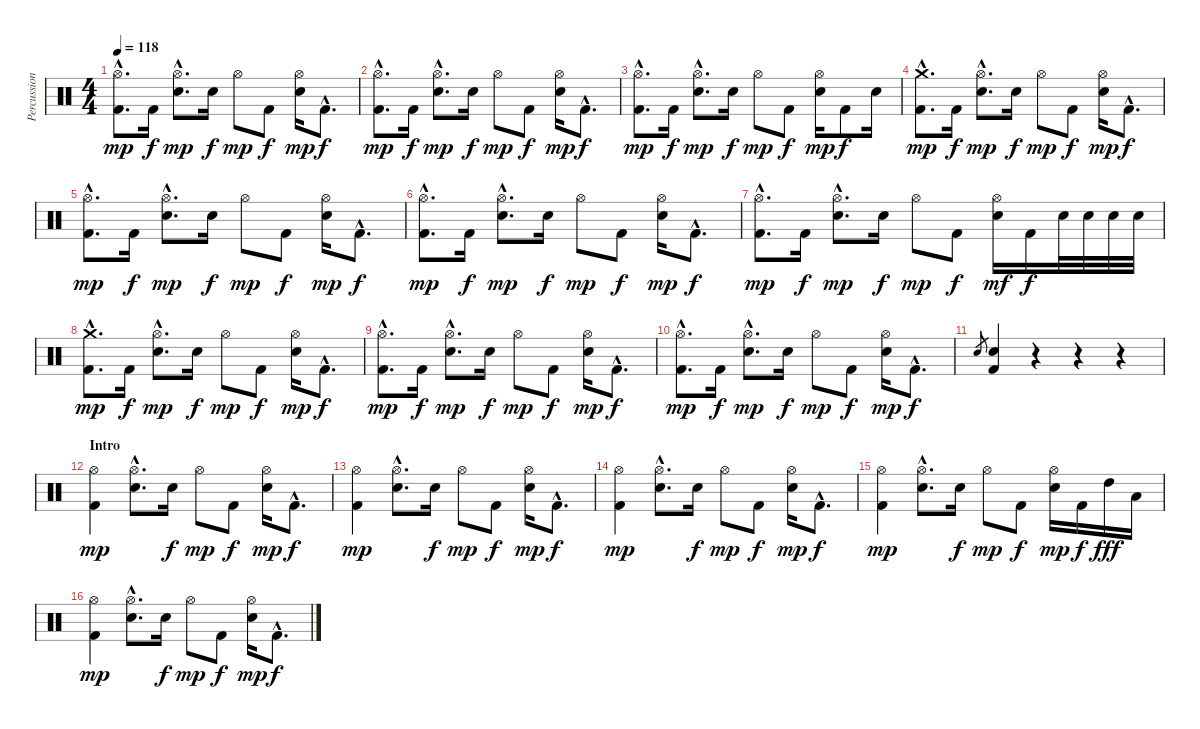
\track ("Percussions" "Percussion") {instrument percussion}
\staff {score}
\articulation defaults
\ts (4 4)
\tempo 118
\clef neutral
\ks c
("Hi-Hat (open)"{hac} "Kick (hit) 2"{hac}).8{d dy mp} "Kick (hit) 2".16{dy f} ("Hi-Hat (open)"{hac} "Snare (hit) 2"{hac}).8{d dy mp} "Electric Snare (hit)".16{dy f} "Hi-Hat (open)".8{dy mp} "Kick (hit) 2".8{dy f} ("Hi-Hat (open)" "Snare (hit) 2").16{dy mp} "Kick (hit) 2"{hac}.8{d dy f} |
("Hi-Hat (open)"{hac} "Kick (hit) 2"{hac}).8{d dy mp} "Kick (hit) 2".16{dy f} ("Hi-Hat (open)"{hac} "Snare (hit) 2"{hac}).8{d dy mp} "Electric Snare (hit)".16{dy f} "Hi-Hat (open)".8{dy mp} "Kick (hit) 2".8{dy f} ("Hi-Hat (open)" "Snare (hit) 2").16{dy mp} "Kick (hit) 2"{hac}.8{d dy f} |
("Hi-Hat (open)"{hac} "Kick (hit) 2"{hac}).8{d dy mp} "Kick (hit) 2".16{dy f} ("Hi-Hat (open)"{hac} "Snare (hit) 2"{hac}).8{d dy mp} "Electric Snare (hit)".16{dy f} "Hi-Hat (open)".8{dy mp} "Kick (hit) 2".8{dy f} ("Hi-Hat (open)" "Snare (hit) 2").16{dy mp} "Kick (hit) 2".8{dy f} "Snare (hit) 2".16 |
("Crash medium (hit)"{hac} "Kick (hit) 2"{hac}).8{d dy mp} "Kick (hit) 2".16{dy f} ("Hi-Hat (open)"{hac} "Snare (hit) 2"{hac}).8{d dy mp} "Electric Snare (hit)".16{dy f} "Hi-Hat (open)".8{dy mp} "Kick (hit) 2".8{dy f} ("Hi-Hat (open)" "Snare (hit) 2").16{dy mp} "Kick (hit) 2"{hac}.8{d dy f} |
("Hi-Hat (open)"{hac} "Kick (hit) 2"{hac}).8{d dy mp} "Kick (hit) 2".16{dy f} ("Hi-Hat (open)"{hac} "Snare (hit) 2"{hac}).8{d dy mp} "Electric Snare (hit)".16{dy f} "Hi-Hat (open)".8{dy mp} "Kick (hit) 2".8{dy f} ("Hi-Hat (open)" "Snare (hit) 2").16{dy mp} "Kick (hit) 2"{hac}.8{d dy f} |
("Hi-Hat (open)"{hac} "Kick (hit) 2"{hac}).8{d dy mp} "Kick (hit) 2".16{dy f} ("Hi-Hat (open)"{hac} "Snare (hit) 2"{hac}).8{d dy mp} "Electric Snare (hit)".16{dy f} "Hi-Hat (open)".8{dy mp} "Kick (hit) 2".8{dy f} ("Hi-Hat (open)" "Snare (hit) 2").16{dy mp} "Kick (hit) 2"{hac}.8{d dy f} |
("Hi-Hat (open)"{hac} "Kick (hit) 2"{hac}).8{d dy mp} "Kick (hit) 2".16{dy f} ("Hi-Hat (open)"{hac} "Snare (hit) 2"{hac}).8{d dy mp} "Electric Snare (hit)".16{dy f} "Hi-Hat (open)".8{dy mp} "Kick (hit) 2".8{dy f} ("Hi-Hat (open)" "Snare (hit) 2").16{dy mf} "Kick (hit) 2".16{dy f} "Snare (hit) 2".32 "Snare (hit) 2".32 "Snare (hit) 2".32 "Snare (hit) 2".32 |
("Crash medium (hit)"{hac} "Kick (hit) 2"{hac}).8{d dy mp} "Kick (hit) 2".16{dy f} ("Hi-Hat (open)"{hac} "Snare (hit) 2"{hac}).8{d dy mp} "Electric Snare (hit)".16{dy f} "Hi-Hat (open)".8{dy mp} "Kick (hit) 2".8{dy f} ("Hi-Hat (open)" "Snare (hit) 2").16{dy mp} "Kick (hit) 2"{hac}.8{d dy f} |
("Hi-Hat (open)"{hac} "Kick (hit) 2"{hac}).8{d dy mp} "Kick (hit) 2".16{dy f} ("Hi-Hat (open)"{hac} "Snare (hit) 2"{hac}).8{d dy mp} "Electric Snare (hit)".16{dy f} "Hi-Hat (open)".8{dy mp} "Kick (hit) 2".8{dy f} ("Hi-Hat (open)" "Snare (hit) 2").16{dy mp} "Kick (hit) 2"{hac}.8{d dy f} |
("Hi-Hat (open)"{hac} "Kick (hit) 2"{hac}).8{d dy mp} "Kick (hit) 2".16{dy f} ("Hi-Hat (open)"{hac} "Snare (hit) 2"{hac}).8{d dy mp} "Electric Snare (hit)".16{dy f} "Hi-Hat (open)".8{dy mp} "Kick (hit) 2".8{dy f} ("Hi-Hat (open)" "Snare (hit) 2").16{dy mp} "Kick (hit) 2"{hac}.8{d dy f} |
"Snare (hit) 2".8{gr} ("Snare (hit) 2" "Kick (hit) 2").4 r.4 r.4 r.4 |
\section ("" "Intro")
("Hi-Hat (open)" "Kick (hit) 2").4{dy mp} ("Hi-Hat (open)"{hac} "Snare (hit) 2"{hac}).8{d} "Snare (hit) 2".16{dy f} "Hi-Hat (open)".8{dy mp} "Kick (hit) 2".8{dy f} ("Hi-Hat (open)" "Snare (hit) 2").16{dy mp} "Kick (hit) 2"{hac}.8{d dy f} |
("Hi-Hat (open)" "Kick (hit) 2").4{dy mp} ("Hi-Hat (open)"{hac} "Snare (hit) 2"{hac}).8{d} "Snare (hit) 2".16{dy f} "Hi-Hat (open)".8{dy mp} "Kick (hit) 2".8{dy f} ("Hi-Hat (open)" "Snare (hit) 2").16{dy mp} "Kick (hit) 2"{hac}.8{d dy f} |
("Hi-Hat (open)" "Kick (hit) 2").4{dy mp} ("Hi-Hat (open)"{hac} "Snare (hit) 2"{hac}).8{d} "Snare (hit) 2".16{dy f} "Hi-Hat (open)".8{dy mp} "Kick (hit) 2".8{dy f} ("Hi-Hat (open)" "Snare (hit) 2").16{dy mp} "Kick (hit) 2"{hac}.8{d dy f} |
("Hi-Hat (open)" "Kick (hit) 2").4{dy mp} ("Hi-Hat (open)"{hac} "Snare (hit) 2"{hac}).8{d} "Snare (hit) 2".16{dy f} "Hi-Hat (open)".8{dy mp} "Kick (hit) 2".8{dy f} ("Hi-Hat (open)" "Snare (hit) 2").16{dy mp} "Kick (hit) 2".16{dy f} "High Tom (hit)".16{dy fff} "Low Tom (hit)".16 |
("Hi-Hat (open)" "Kick (hit) 2").4{dy mp} ("Hi-Hat (open)"{hac} "Snare (hit) 2"{hac}).8{d} "Snare (hit) 2".16{dy f} "Hi-Hat (open)".8{dy mp} "Kick (hit) 2".8{dy f} ("Hi-Hat (open)" "Snare (hit) 2").16{dy mp} "Kick (hit) 2"{hac}.8{d dy f}
